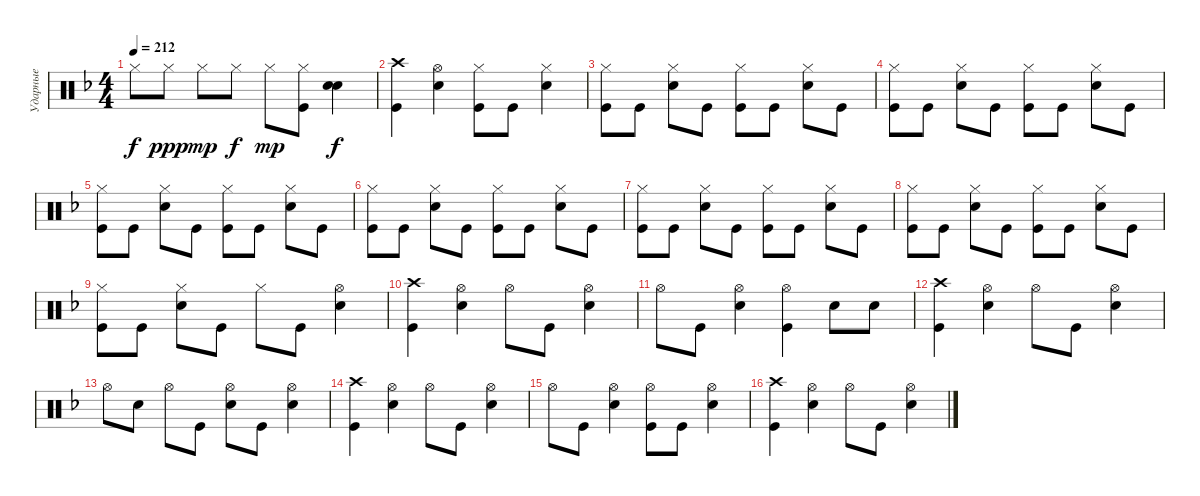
\track ("Ударные" "Ударные") {instrument percussion}
\staff {score}
\articulation defaults
\ts (4 4)
\tempo 212
\clef neutral
\ks dminor "Hi-Hat (closed)".8{dy f} "Hi-Hat (closed)".8{dy ppp} "Hi-Hat (closed)".8{dy mp} "Hi-Hat (closed)".8{dy f} "Hi-Hat (closed)".8{dy mp}
("Kick (hit)" "Hi-Hat (closed)").8 ("Snare (hit) 2" "Snare (hit) 2").4{bd 480 dy f} |
("Kick (hit)" "Crash high (hit)").4 ("Snare (hit) 2" "Hi-Hat (open)").4 ("Hi-Hat (closed)" "Kick (hit)").8 "Kick (hit)".8 ("Snare (hit) 2" "Hi-Hat (closed)").4 |
("Kick (hit)" "Hi-Hat (closed)").8 "Kick (hit)".8 ("Snare (hit) 2" "Hi-Hat (closed)").8 "Kick (hit)".8 ("Hi-Hat (closed)" "Kick (hit)").8 "Kick (hit)".8 ("Snare (hit) 2" "Hi-Hat (closed)").8 "Kick (hit)".8 |
("Kick (hit)" "Hi-Hat (closed)").8 "Kick (hit)".8 ("Snare (hit) 2" "Hi-Hat (closed)").8 "Kick (hit)".8 ("Hi-Hat (closed)" "Kick (hit)").8 "Kick (hit)".8 ("Snare (hit) 2" "Hi-Hat (closed)").8 "Kick (hit)".8 |
("Kick (hit)" "Hi-Hat (closed)").8 "Kick (hit)".8 ("Snare (hit) 2" "Hi-Hat (closed)").8 "Kick (hit)".8 ("Hi-Hat (closed)" "Kick (hit)").8 "Kick (hit)".8 ("Snare (hit) 2" "Hi-Hat (closed)").8 "Kick (hit)".8 |
("Kick (hit)" "Hi-Hat (closed)").8 "Kick (hit)".8 ("Snare (hit) 2" "Hi-Hat (closed)").8 "Kick (hit)".8 ("Hi-Hat (closed)" "Kick (hit)").8 "Kick (hit)".8 ("Snare (hit) 2" "Hi-Hat (closed)").8 "Kick (hit)".8 |
("Kick (hit)" "Hi-Hat (closed)").8 "Kick (hit)".8 ("Snare (hit) 2" "Hi-Hat (closed)").8 "Kick (hit)".8 ("Hi-Hat (closed)" "Kick (hit)").8 "Kick (hit)".8 ("Snare (hit) 2" "Hi-Hat (closed)").8 "Kick (hit)".8 |
("Kick (hit)" "Hi-Hat (closed)").8 "Kick (hit)".8 ("Snare (hit) 2" "Hi-Hat (closed)").8 "Kick (hit)".8 ("Hi-Hat (closed)" "Kick (hit)").8 "Kick (hit)".8 ("Snare (hit) 2" "Hi-Hat (closed)").8 "Kick (hit)".8 |
("Kick (hit)" "Hi-Hat (closed)").8 "Kick (hit)".8 ("Snare (hit) 2" "Hi-Hat (closed)").8 "Kick (hit)".8 "Hi-Hat (closed)".8 "Kick (hit)".8 ("Snare (hit) 2" "Hi-Hat (open)").4 |
("Kick (hit)" "Crash high (hit)").4 ("Snare (hit) 2" "Hi-Hat (open)").4 "Hi-Hat (open)".8 "Kick (hit)".8 ("Snare (hit) 2" "Hi-Hat (open)").4 |
"Hi-Hat (open)".8 "Kick (hit)".8 ("Snare (hit) 2" "Hi-Hat (open)").4 ("Hi-Hat (open)" "Kick (hit)").4 "Snare (hit) 2".8 "Snare (hit) 2".8 |
("Kick (hit)" "Crash high (hit)").4 ("Snare (hit) 2" "Hi-Hat (open)").4 "Hi-Hat (open)".8 "Kick (hit)".8 ("Snare (hit) 2" "Hi-Hat (open)").4 |
"Hi-Hat (open)".8 "Snare (hit) 2".8 "Hi-Hat (open)".8 "Kick (hit)".8 ("Hi-Hat (open)" "Snare (hit) 2").8 "Kick (hit)".8 ("Snare (hit) 2" "Hi-Hat (open)").4 |
("Kick (hit)" "Crash high (hit)").4 ("Snare (hit) 2" "Hi-Hat (open)").4 "Hi-Hat (open)".8 "Kick (hit)".8 ("Snare (hit) 2" "Hi-Hat (open)").4 |
"Hi-Hat (open)".8 "Kick (hit)".8 ("Hi-Hat (open)" "Snare (hit) 2").4 ("Hi-Hat (open)" "Kick (hit)").8 "Kick (hit)".8 ("Hi-Hat (open)" "Snare (hit) 2").4 |
("Kick (hit)" "Crash high (hit)").4 ("Snare (hit) 2" "Hi-Hat (open)").4 "Hi-Hat (open)".8 "Kick (hit)".8 ("Snare (hit) 2" "Hi-Hat (open)").4
